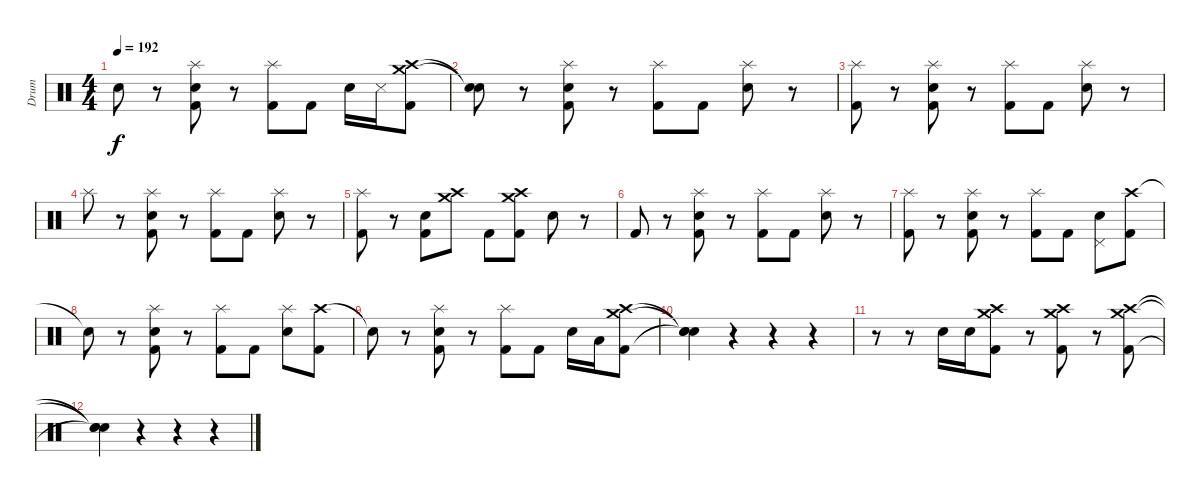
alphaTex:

\track ("Drum" "Drum") {instrument percussion}
\staff {score}
\articulation defaults
\ts (4 4)
\tempo 192
\clef neutral
\ks c "Snare (hit)"{t}.8{dy f}
r.8 ("Splash (hit)" "Electric Snare (hit)" "Kick (hit) 2").8 r.8 ("Splash (hit)" "Kick (hit) 2").8 "Kick (hit) 2".8 "Electric Snare (hit)".16 "Snare (side stick) 3".16 ("Crash high (hit)" "Crash medium (hit)" "Kick (hit) 2").8 |
("Snare (hit)"{t} "Snare (hit)"{t}).8 r.8 ("Splash (hit)" "Electric Snare (hit)" "Kick (hit) 2").8 r.8 ("Splash (hit)" "Kick (hit) 2").8 "Kick (hit) 2".8 ("Splash (hit)" "Electric Snare (hit)").8 r.8 |
("Splash (hit)" "Kick (hit) 2").8 r.8 ("Splash (hit)" "Electric Snare (hit)" "Kick (hit) 2").8 r.8 ("Splash (hit)" "Kick (hit) 2").8 "Kick (hit) 2".8 ("Splash (hit)" "Electric Snare (hit)").8 r.8 |
"Splash (hit)".8 r.8 ("Splash (hit)" "Electric Snare (hit)" "Kick (hit) 2").8 r.8 ("Splash (hit)" "Kick (hit) 2").8 "Kick (hit) 2".8 ("Splash (hit)" "Electric Snare (hit)").8 r.8 |
("Splash (hit)" "Kick (hit) 2").8 r.8 ("Electric Snare (hit)" "Kick (hit) 2").8 ("Crash high (hit)" "Crash medium (hit)").8 "Kick (hit) 2".8 ("Crash high (hit)" "Crash medium (hit)" "Kick (hit) 2").8 "Electric Snare (hit)".8 r.8 |
"Kick (hit) 2".8 r.8 ("Splash (hit)" "Electric Snare (hit)" "Kick (hit) 2").8 r.8 ("Splash (hit)" "Kick (hit) 2").8 "Kick (hit) 2".8 ("Splash (hit)" "Electric Snare (hit)").8 r.8 |
("Splash (hit)" "Kick (hit) 2").8 r.8 ("Splash (hit)" "Electric Snare (hit)" "Kick (hit) 2").8 r.8 ("Splash (hit)" "Kick (hit) 2").8 "Kick (hit) 2".8 ("Pedal Hi-Hat (hit)" "Electric Snare (hit)").8 ("Crash high (hit)" "Kick (hit) 2").8 |
"Snare (hit)"{t}.8 r.8 ("Splash (hit)" "Electric Snare (hit)" "Kick (hit) 2").8 r.8 ("Splash (hit)" "Kick (hit) 2").8 "Kick (hit) 2".8 ("Splash (hit)" "Electric Snare (hit)").8 ("Crash high (hit)" "Kick (hit) 2").8 |
"Snare (hit)"{t}.8 r.8 ("Splash (hit)" "Electric Snare (hit)" "Kick (hit) 2").8 r.8 ("Splash (hit)" "Kick (hit) 2").8 "Kick (hit) 2".8 "Electric Snare (hit)".16 "Low Tom (hit)".16 ("Crash high (hit)" "Crash medium (hit)" "Kick (hit) 2").8 |
("Snare (hit)"{t} "Snare (hit)"{t} "Snare (hit)"{t}).4 r.4 r.4 r.4 |
r.8 r.8 "Electric Snare (hit)".16 "Electric Snare (hit)".16 ("Crash medium (hit)" "Crash high (hit)" "Kick (hit) 2").8 r.8 ("Crash medium (hit)" "Crash high (hit)" "Kick (hit) 2").8 r.8 ("Crash medium (hit)" "Crash high (hit)" "Kick (hit) 2").8 |
("Snare (hit)"{t} "Snare (hit)"{t} "Snare (hit)"{t}).4 r.4 r.4 r.4
